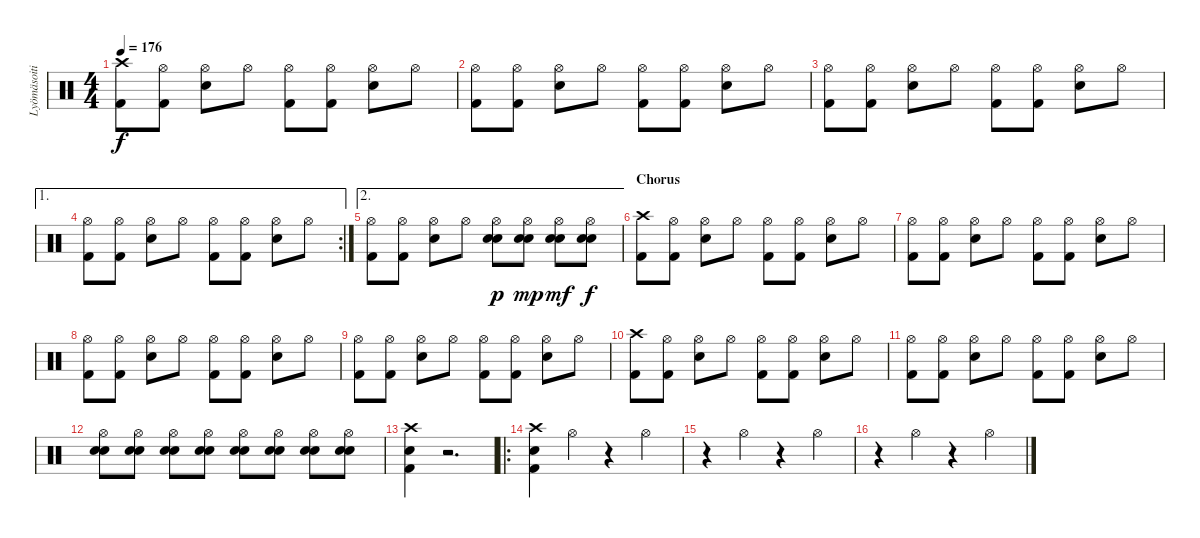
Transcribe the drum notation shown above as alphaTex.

\track ("Lyömäsoitin" "Lyömäsoiti") {instrument percussion}
\staff {score}
\articulation defaults
\ts (4 4)
\tempo 176
\clef neutral
\ks c
("Crash high (hit)" "Kick (hit) 2").8{dy f} ("Hi-Hat (open)" "Kick (hit) 2").8 ("Hi-Hat (open)" "Electric Snare (hit)").8 "Hi-Hat (open)".8 ("Hi-Hat (open)" "Kick (hit) 2").8 ("Hi-Hat (open)" "Kick (hit) 2").8 ("Hi-Hat (open)" "Electric Snare (hit)").8 "Hi-Hat (open)".8 |
("Hi-Hat (open)" "Kick (hit) 2").8 ("Hi-Hat (open)" "Kick (hit) 2").8 ("Hi-Hat (open)" "Electric Snare (hit)").8 "Hi-Hat (open)".8 ("Hi-Hat (open)" "Kick (hit) 2").8 ("Hi-Hat (open)" "Kick (hit) 2").8 ("Hi-Hat (open)" "Electric Snare (hit)").8 "Hi-Hat (open)".8 |
("Hi-Hat (open)" "Kick (hit) 2").8 ("Hi-Hat (open)" "Kick (hit) 2").8 ("Hi-Hat (open)" "Electric Snare (hit)").8 "Hi-Hat (open)".8 ("Hi-Hat (open)" "Kick (hit) 2").8 ("Hi-Hat (open)" "Kick (hit) 2").8 ("Hi-Hat (open)" "Electric Snare (hit)").8 "Hi-Hat (open)".8 |
\ae 1
\rc 2
("Hi-Hat (open)" "Kick (hit) 2").8 ("Hi-Hat (open)" "Kick (hit) 2").8 ("Hi-Hat (open)" "Electric Snare (hit)").8 "Hi-Hat (open)".8 ("Hi-Hat (open)" "Kick (hit) 2").8 ("Hi-Hat (open)" "Kick (hit) 2").8 ("Hi-Hat (open)" "Electric Snare (hit)").8 "Hi-Hat (open)".8 |
\ae 2
("Hi-Hat (open)" "Kick (hit) 2").8 ("Hi-Hat (open)" "Kick (hit) 2").8 ("Hi-Hat (open)" "Electric Snare (hit)").8 "Hi-Hat (open)".8 ("Hi-Hat (open)" "Snare (hit) 2" "Electric Snare (hit)").8{dy p} ("Hi-Hat (open)" "Snare (hit) 2" "Electric Snare (hit)").8{dy mp} ("Hi-Hat (open)" "Snare (hit) 2" "Electric Snare (hit)").8{dy mf} ("Hi-Hat (open)" "Snare (hit) 2" "Electric Snare (hit)").8{dy f} |
\section ("" "Chorus")
("Crash high (hit)" "Kick (hit) 2").8 ("Hi-Hat (open)" "Kick (hit) 2").8 ("Hi-Hat (open)" "Electric Snare (hit)").8 "Hi-Hat (open)".8 ("Hi-Hat (open)" "Kick (hit) 2").8 ("Hi-Hat (open)" "Kick (hit) 2").8 ("Hi-Hat (open)" "Electric Snare (hit)").8 "Hi-Hat (open)".8 |
("Hi-Hat (open)" "Kick (hit) 2").8 ("Hi-Hat (open)" "Kick (hit) 2").8 ("Hi-Hat (open)" "Electric Snare (hit)").8 "Hi-Hat (open)".8 ("Hi-Hat (open)" "Kick (hit) 2").8 ("Hi-Hat (open)" "Kick (hit) 2").8 ("Hi-Hat (open)" "Electric Snare (hit)").8 "Hi-Hat (open)".8 |
("Hi-Hat (open)" "Kick (hit) 2").8 ("Hi-Hat (open)" "Kick (hit) 2").8 ("Hi-Hat (open)" "Electric Snare (hit)").8 "Hi-Hat (open)".8 ("Hi-Hat (open)" "Kick (hit) 2").8 ("Hi-Hat (open)" "Kick (hit) 2").8 ("Hi-Hat (open)" "Electric Snare (hit)").8 "Hi-Hat (open)".8 |
("Hi-Hat (open)" "Kick (hit) 2").8 ("Hi-Hat (open)" "Kick (hit) 2").8 ("Hi-Hat (open)" "Electric Snare (hit)").8 "Hi-Hat (open)".8 ("Hi-Hat (open)" "Kick (hit) 2").8 ("Hi-Hat (open)" "Kick (hit) 2").8 ("Hi-Hat (open)" "Electric Snare (hit)").8 "Hi-Hat (open)".8 |
("Crash high (hit)" "Kick (hit) 2").8 ("Hi-Hat (open)" "Kick (hit) 2").8 ("Hi-Hat (open)" "Electric Snare (hit)").8 "Hi-Hat (open)".8 ("Hi-Hat (open)" "Kick (hit) 2").8 ("Hi-Hat (open)" "Kick (hit) 2").8 ("Hi-Hat (open)" "Electric Snare (hit)").8 "Hi-Hat (open)".8 |
("Hi-Hat (open)" "Kick (hit) 2").8 ("Hi-Hat (open)" "Kick (hit) 2").8 ("Hi-Hat (open)" "Electric Snare (hit)").8 "Hi-Hat (open)".8 ("Hi-Hat (open)" "Kick (hit) 2").8 ("Hi-Hat (open)" "Kick (hit) 2").8 ("Hi-Hat (open)" "Electric Snare (hit)").8 "Hi-Hat (open)".8 |
("Hi-Hat (open)" "Snare (hit) 2" "Electric Snare (hit)").8 ("Hi-Hat (open)" "Snare (hit) 2" "Electric Snare (hit)").8 ("Hi-Hat (open)" "Snare (hit) 2" "Electric Snare (hit)").8 ("Hi-Hat (open)" "Snare (hit) 2" "Electric Snare (hit)").8 ("Hi-Hat (open)" "Snare (hit) 2" "Electric Snare (hit)").8 ("Hi-Hat (open)" "Snare (hit) 2" "Electric Snare (hit)").8 ("Hi-Hat (open)" "Snare (hit) 2" "Electric Snare (hit)").8 ("Hi-Hat (open)" "Snare (hit) 2" "Electric Snare (hit)").8 |
("Crash high (hit)" "Electric Snare (hit)" "Kick (hit) 2").4 r.2{d} |
\ro
("Crash high (hit)" "Electric Snare (hit)" "Kick (hit) 2").4 "Hi-Hat (open)".4 r.4 "Hi-Hat (open)".4 |
r.4 "Hi-Hat (open)".4 r.4 "Hi-Hat (open)".4 |
r.4 "Hi-Hat (open)".4 r.4 "Hi-Hat (open)".4
